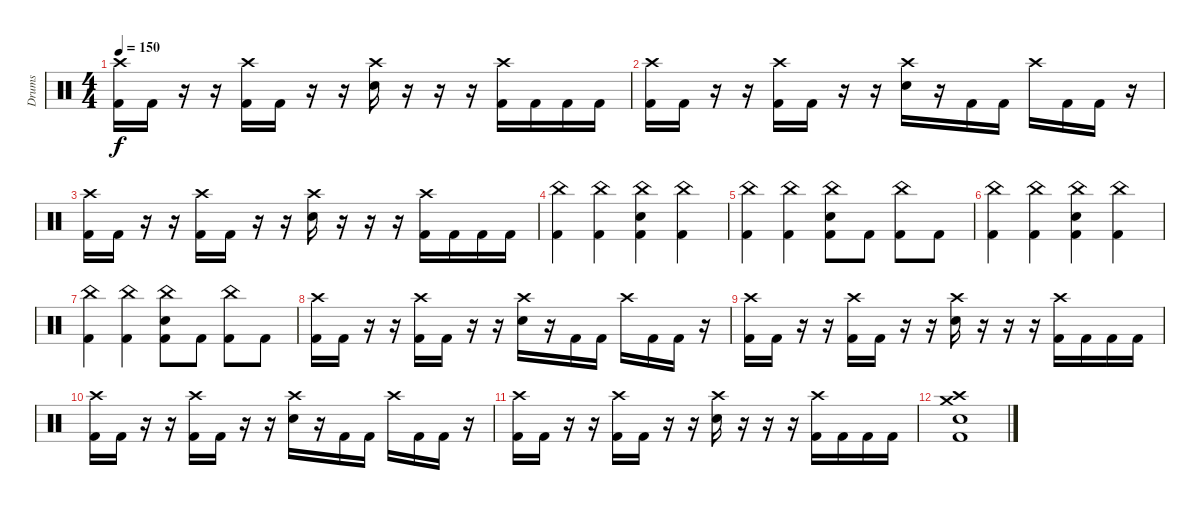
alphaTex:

\track ("Drums" "Drums") {instrument percussion}
\staff {score}
\articulation defaults
\ts (4 4)
\tempo 150
\clef neutral
\ks c
("Crash high (hit)" "Kick (hit) 2").16{dy f} "Kick (hit) 2".16 r.16 r.16 ("Crash high (hit)" "Kick (hit) 2").16 "Kick (hit) 2".16 r.16 r.16 ("Crash high (hit)" "Electric Snare (hit)").16 r.16 r.16 r.16 ("Crash high (hit)" "Kick (hit) 2").16 "Kick (hit) 2".16 "Kick (hit) 2".16 "Kick (hit) 2".16 |
("Crash high (hit)" "Kick (hit) 2").16 "Kick (hit) 2".16 r.16 r.16 ("Crash high (hit)" "Kick (hit) 2").16 "Kick (hit) 2".16 r.16 r.16 ("Crash high (hit)" "Electric Snare (hit)").16 r.16 "Kick (hit) 2".16 "Kick (hit) 2".16 "Crash high (hit)".16 "Kick (hit) 2".16 "Kick (hit) 2".16 r.16 |
("Crash high (hit)" "Kick (hit) 2").16 "Kick (hit) 2".16 r.16 r.16 ("Crash high (hit)" "Kick (hit) 2").16 "Kick (hit) 2".16 r.16 r.16 ("Crash high (hit)" "Electric Snare (hit)").16 r.16 r.16 r.16 ("Crash high (hit)" "Kick (hit) 2").16 "Kick (hit) 2".16 "Kick (hit) 2".16 "Kick (hit) 2".16 |
("China (hit)" "Kick (hit) 2").4 ("China (hit)" "Kick (hit) 2").4 ("China (hit)" "Electric Snare (hit)" "Kick (hit) 2").4 ("China (hit)" "Kick (hit) 2").4 |
("China (hit)" "Kick (hit) 2").4 ("China (hit)" "Kick (hit) 2").4 ("China (hit)" "Electric Snare (hit)" "Kick (hit) 2").8 "Kick (hit) 2".8 ("China (hit)" "Kick (hit) 2").8 "Kick (hit) 2".8 |
("China (hit)" "Kick (hit) 2").4 ("China (hit)" "Kick (hit) 2").4 ("China (hit)" "Electric Snare (hit)" "Kick (hit) 2").4 ("China (hit)" "Kick (hit) 2").4 |
("China (hit)" "Kick (hit) 2").4 ("China (hit)" "Kick (hit) 2").4 ("China (hit)" "Electric Snare (hit)" "Kick (hit) 2").8 "Kick (hit) 2".8 ("China (hit)" "Kick (hit) 2").8 "Kick (hit) 2".8 |
("Crash high (hit)" "Kick (hit) 2").16 "Kick (hit) 2".16 r.16 r.16 ("Crash high (hit)" "Kick (hit) 2").16 "Kick (hit) 2".16 r.16 r.16 ("Crash high (hit)" "Electric Snare (hit)").16 r.16 "Kick (hit) 2".16 "Kick (hit) 2".16 "Crash high (hit)".16 "Kick (hit) 2".16 "Kick (hit) 2".16 r.16 |
("Crash high (hit)" "Kick (hit) 2").16 "Kick (hit) 2".16 r.16 r.16 ("Crash high (hit)" "Kick (hit) 2").16 "Kick (hit) 2".16 r.16 r.16 ("Crash high (hit)" "Electric Snare (hit)").16 r.16 r.16 r.16 ("Crash high (hit)" "Kick (hit) 2").16 "Kick (hit) 2".16 "Kick (hit) 2".16 "Kick (hit) 2".16 |
("Crash high (hit)" "Kick (hit) 2").16 "Kick (hit) 2".16 r.16 r.16 ("Crash high (hit)" "Kick (hit) 2").16 "Kick (hit) 2".16 r.16 r.16 ("Crash high (hit)" "Electric Snare (hit)").16 r.16 "Kick (hit) 2".16 "Kick (hit) 2".16 "Crash high (hit)".16 "Kick (hit) 2".16 "Kick (hit) 2".16 r.16 |
("Crash high (hit)" "Kick (hit) 2").16 "Kick (hit) 2".16 r.16 r.16 ("Crash high (hit)" "Kick (hit) 2").16 "Kick (hit) 2".16 r.16 r.16 ("Crash high (hit)" "Electric Snare (hit)").16 r.16 r.16 r.16 ("Crash high (hit)" "Kick (hit) 2").16 "Kick (hit) 2".16 "Kick (hit) 2".16 "Kick (hit) 2".16 |
("Crash high (hit)" "Crash medium (hit)" "Electric Snare (hit)" "Kick (hit) 2").1
